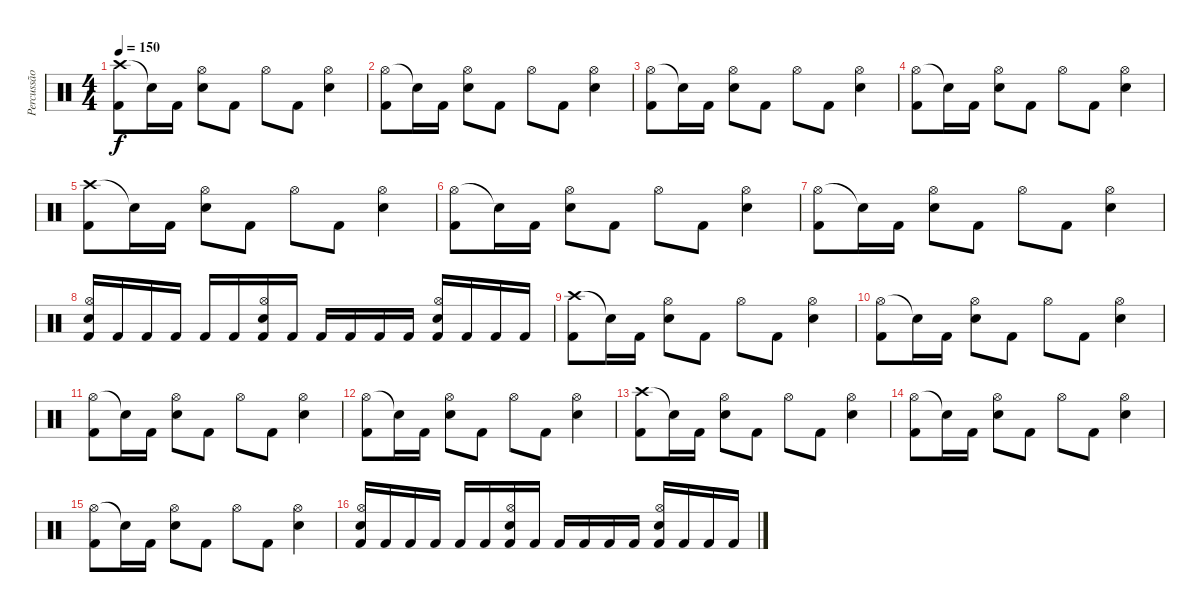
\track ("Percussão" "Percussão") {instrument percussion}
\staff {score}
\articulation defaults
\ts (4 4)
\tempo 150
\clef neutral
\ks c
("Crash high (hit)" "Kick (hit) 2").8{dy f} "Snare (hit)"{t}.16 "Kick (hit) 2".16 ("Hi-Hat (open)" "Electric Snare (hit)").8 "Kick (hit) 2".8 "Hi-Hat (open)".8 "Kick (hit) 2".8 ("Hi-Hat (open)" "Electric Snare (hit)").4 |
("Hi-Hat (open)" "Kick (hit) 2").8 "Snare (hit)"{t}.16 "Kick (hit) 2".16 ("Hi-Hat (open)" "Electric Snare (hit)").8 "Kick (hit) 2".8 "Hi-Hat (open)".8 "Kick (hit) 2".8 ("Hi-Hat (open)" "Electric Snare (hit)").4 |
("Hi-Hat (open)" "Kick (hit) 2").8 "Snare (hit)"{t}.16 "Kick (hit) 2".16 ("Hi-Hat (open)" "Electric Snare (hit)").8 "Kick (hit) 2".8 "Hi-Hat (open)".8 "Kick (hit) 2".8 ("Hi-Hat (open)" "Electric Snare (hit)").4 |
("Hi-Hat (open)" "Kick (hit) 2").8 "Snare (hit)"{t}.16 "Kick (hit) 2".16 ("Hi-Hat (open)" "Electric Snare (hit)").8 "Kick (hit) 2".8 "Hi-Hat (open)".8 "Kick (hit) 2".8 ("Hi-Hat (open)" "Electric Snare (hit)").4 |
("Crash high (hit)" "Kick (hit) 2").8 "Snare (hit)"{t}.16 "Kick (hit) 2".16 ("Hi-Hat (open)" "Electric Snare (hit)").8 "Kick (hit) 2".8 "Hi-Hat (open)".8 "Kick (hit) 2".8 ("Hi-Hat (open)" "Electric Snare (hit)").4 |
("Hi-Hat (open)" "Kick (hit) 2").8 "Snare (hit)"{t}.16 "Kick (hit) 2".16 ("Hi-Hat (open)" "Electric Snare (hit)").8 "Kick (hit) 2".8 "Hi-Hat (open)".8 "Kick (hit) 2".8 ("Hi-Hat (open)" "Electric Snare (hit)").4 |
("Hi-Hat (open)" "Kick (hit) 2").8 "Snare (hit)"{t}.16 "Kick (hit) 2".16 ("Hi-Hat (open)" "Electric Snare (hit)").8 "Kick (hit) 2".8 "Hi-Hat (open)".8 "Kick (hit) 2".8 ("Hi-Hat (open)" "Electric Snare (hit)").4 |
("Hi-Hat (open)" "Electric Snare (hit)" "Kick (hit) 2").16 "Kick (hit) 2".16 "Kick (hit) 2".16 "Kick (hit) 2".16 "Kick (hit) 2".16 "Kick (hit) 2".16 ("Hi-Hat (open)" "Electric Snare (hit)" "Kick (hit) 2").16 "Kick (hit) 2".16 "Kick (hit) 2".16 "Kick (hit) 2".16 "Kick (hit) 2".16 "Kick (hit) 2".16 ("Hi-Hat (open)" "Electric Snare (hit)" "Kick (hit) 2").16 "Kick (hit) 2".16 "Kick (hit) 2".16 "Kick (hit) 2".16 |
("Crash high (hit)" "Kick (hit) 2").8 "Snare (hit)"{t}.16 "Kick (hit) 2".16 ("Hi-Hat (open)" "Electric Snare (hit)").8 "Kick (hit) 2".8 "Hi-Hat (open)".8 "Kick (hit) 2".8 ("Hi-Hat (open)" "Electric Snare (hit)").4 |
("Hi-Hat (open)" "Kick (hit) 2").8 "Snare (hit)"{t}.16 "Kick (hit) 2".16 ("Hi-Hat (open)" "Electric Snare (hit)").8 "Kick (hit) 2".8 "Hi-Hat (open)".8 "Kick (hit) 2".8 ("Hi-Hat (open)" "Electric Snare (hit)").4 |
("Hi-Hat (open)" "Kick (hit) 2").8 "Snare (hit)"{t}.16 "Kick (hit) 2".16 ("Hi-Hat (open)" "Electric Snare (hit)").8 "Kick (hit) 2".8 "Hi-Hat (open)".8 "Kick (hit) 2".8 ("Hi-Hat (open)" "Electric Snare (hit)").4 |
("Hi-Hat (open)" "Kick (hit) 2").8 "Snare (hit)"{t}.16 "Kick (hit) 2".16 ("Hi-Hat (open)" "Electric Snare (hit)").8 "Kick (hit) 2".8 "Hi-Hat (open)".8 "Kick (hit) 2".8 ("Hi-Hat (open)" "Electric Snare (hit)").4 |
("Crash high (hit)" "Kick (hit) 2").8 "Snare (hit)"{t}.16 "Kick (hit) 2".16 ("Hi-Hat (open)" "Electric Snare (hit)").8 "Kick (hit) 2".8 "Hi-Hat (open)".8 "Kick (hit) 2".8 ("Hi-Hat (open)" "Electric Snare (hit)").4 |
("Hi-Hat (open)" "Kick (hit) 2").8 "Snare (hit)"{t}.16 "Kick (hit) 2".16 ("Hi-Hat (open)" "Electric Snare (hit)").8 "Kick (hit) 2".8 "Hi-Hat (open)".8 "Kick (hit) 2".8 ("Hi-Hat (open)" "Electric Snare (hit)").4 |
("Hi-Hat (open)" "Kick (hit) 2").8 "Snare (hit)"{t}.16 "Kick (hit) 2".16 ("Hi-Hat (open)" "Electric Snare (hit)").8 "Kick (hit) 2".8 "Hi-Hat (open)".8 "Kick (hit) 2".8 ("Hi-Hat (open)" "Electric Snare (hit)").4 |
("Hi-Hat (open)" "Electric Snare (hit)" "Kick (hit) 2").16 "Kick (hit) 2".16 "Kick (hit) 2".16 "Kick (hit) 2".16 "Kick (hit) 2".16 "Kick (hit) 2".16 ("Hi-Hat (open)" "Electric Snare (hit)" "Kick (hit) 2").16 "Kick (hit) 2".16 "Kick (hit) 2".16 "Kick (hit) 2".16 "Kick (hit) 2".16 "Kick (hit) 2".16 ("Hi-Hat (open)" "Electric Snare (hit)" "Kick (hit) 2").16 "Kick (hit) 2".16 "Kick (hit) 2".16 "Kick (hit) 2".16
